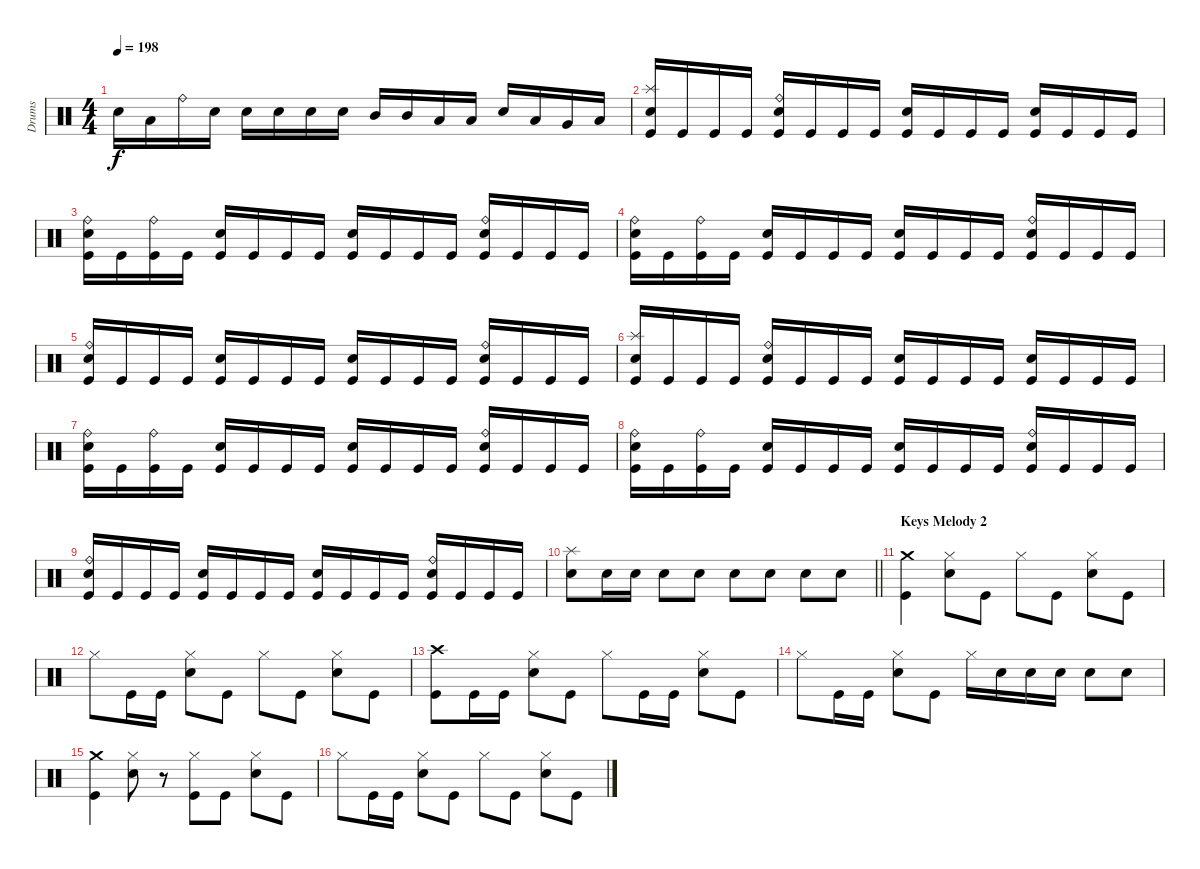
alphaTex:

\track ("Drums" "Drums") {instrument percussion}
\staff {score}
\articulation defaults
\ts (4 4)
\tempo 198
\clef neutral
\ks c "Electric Snare (hit)".16{dy f} "Low Tom (hit)".16 "Ride (bell)".16 "Electric Snare (hit)".16 "Electric Snare (hit)".16 "Electric Snare (hit)".16 "Electric Snare (hit)".16 "Electric Snare (hit)".16 "Mid Tom (hit)".16 "Mid Tom (hit)".16 "Low Tom (hit)".16 "Low Tom (hit)".16 "Electric Snare (hit)".16 "Low Tom (hit)".16 "Very Low Tom (hit)".16 "Low Floor Tom (hit)".16
|
("Splash (hit)" "Electric Snare (hit)" "Kick (hit)").16 "Kick (hit)".16 "Kick (hit)".16 "Kick (hit)".16 ("Ride (bell)" "Electric Snare (hit)" "Kick (hit)").16 "Kick (hit)".16 "Kick (hit)".16 "Kick (hit)".16 ("Electric Snare (hit)" "Kick (hit)").16 "Kick (hit)".16 "Kick (hit)".16 "Kick (hit)".16 ("Electric Snare (hit)" "Kick (hit)").16 "Kick (hit)".16 "Kick (hit)".16 "Kick (hit)".16 |
("Ride (bell)" "Electric Snare (hit)" "Kick (hit)").16 "Kick (hit)".16 ("Ride (bell)" "Kick (hit)").16 "Kick (hit)".16 ("Electric Snare (hit)" "Kick (hit)").16 "Kick (hit)".16 "Kick (hit)".16 "Kick (hit)".16 ("Electric Snare (hit)" "Kick (hit)").16 "Kick (hit)".16 "Kick (hit)".16 "Kick (hit)".16 ("Ride (bell)" "Electric Snare (hit)" "Kick (hit)").16 "Kick (hit)".16 "Kick (hit)".16 "Kick (hit)".16 |
("Ride (bell)" "Electric Snare (hit)" "Kick (hit)").16 "Kick (hit)".16 ("Ride (bell)" "Kick (hit)").16 "Kick (hit)".16 ("Electric Snare (hit)" "Kick (hit)").16 "Kick (hit)".16 "Kick (hit)".16 "Kick (hit)".16 ("Electric Snare (hit)" "Kick (hit)").16 "Kick (hit)".16 "Kick (hit)".16 "Kick (hit)".16 ("Ride (bell)" "Electric Snare (hit)" "Kick (hit)").16 "Kick (hit)".16 "Kick (hit)".16 "Kick (hit)".16 |
("Ride (bell)" "Electric Snare (hit)" "Kick (hit)").16 "Kick (hit)".16 "Kick (hit)".16 "Kick (hit)".16 ("Electric Snare (hit)" "Kick (hit)").16 "Kick (hit)".16 "Kick (hit)".16 "Kick (hit)".16 ("Electric Snare (hit)" "Kick (hit)").16 "Kick (hit)".16 "Kick (hit)".16 "Kick (hit)".16 ("Ride (bell)" "Electric Snare (hit)" "Kick (hit)").16 "Kick (hit)".16 "Kick (hit)".16 "Kick (hit)".16 |
("Splash (hit)" "Electric Snare (hit)" "Kick (hit)").16 "Kick (hit)".16 "Kick (hit)".16 "Kick (hit)".16 ("Ride (bell)" "Electric Snare (hit)" "Kick (hit)").16 "Kick (hit)".16 "Kick (hit)".16 "Kick (hit)".16 ("Electric Snare (hit)" "Kick (hit)").16 "Kick (hit)".16 "Kick (hit)".16 "Kick (hit)".16 ("Electric Snare (hit)" "Kick (hit)").16 "Kick (hit)".16 "Kick (hit)".16 "Kick (hit)".16 |
("Ride (bell)" "Electric Snare (hit)" "Kick (hit)").16 "Kick (hit)".16 ("Ride (bell)" "Kick (hit)").16 "Kick (hit)".16 ("Electric Snare (hit)" "Kick (hit)").16 "Kick (hit)".16 "Kick (hit)".16 "Kick (hit)".16 ("Electric Snare (hit)" "Kick (hit)").16 "Kick (hit)".16 "Kick (hit)".16 "Kick (hit)".16 ("Ride (bell)" "Electric Snare (hit)" "Kick (hit)").16 "Kick (hit)".16 "Kick (hit)".16 "Kick (hit)".16 |
("Ride (bell)" "Electric Snare (hit)" "Kick (hit)").16 "Kick (hit)".16 ("Ride (bell)" "Kick (hit)").16 "Kick (hit)".16 ("Electric Snare (hit)" "Kick (hit)").16 "Kick (hit)".16 "Kick (hit)".16 "Kick (hit)".16 ("Electric Snare (hit)" "Kick (hit)").16 "Kick (hit)".16 "Kick (hit)".16 "Kick (hit)".16 ("Ride (bell)" "Electric Snare (hit)" "Kick (hit)").16 "Kick (hit)".16 "Kick (hit)".16 "Kick (hit)".16 |
("Ride (bell)" "Electric Snare (hit)" "Kick (hit)").16 "Kick (hit)".16 "Kick (hit)".16 "Kick (hit)".16 ("Electric Snare (hit)" "Kick (hit)").16 "Kick (hit)".16 "Kick (hit)".16 "Kick (hit)".16 ("Electric Snare (hit)" "Kick (hit)").16 "Kick (hit)".16 "Kick (hit)".16 "Kick (hit)".16 ("Ride (bell)" "Electric Snare (hit)" "Kick (hit)").16 "Kick (hit)".16 "Kick (hit)".16 "Kick (hit)".16 |
\barLineRight lightlight
("Splash (hit)" "Electric Snare (hit)").8 "Electric Snare (hit)".16 "Electric Snare (hit)".16 "Electric Snare (hit)".8 "Electric Snare (hit)".8 "Electric Snare (hit)".8 "Electric Snare (hit)".8 "Electric Snare (hit)".8 "Electric Snare (hit)".8 |
\section ("" "Keys Melody 2")
("Crash medium (hit)" "Kick (hit)").4 ("Hi-Hat (closed)" "Electric Snare (hit)").8 "Kick (hit)".8 "Hi-Hat (closed)".8 "Kick (hit)".8 ("Hi-Hat (closed)" "Electric Snare (hit)").8 "Kick (hit)".8 |
"Hi-Hat (closed)".8 "Kick (hit)".16 "Kick (hit)".16 ("Hi-Hat (closed)" "Electric Snare (hit)").8 "Kick (hit)".8 "Hi-Hat (closed)".8 "Kick (hit)".8 ("Hi-Hat (closed)" "Electric Snare (hit)").8 "Kick (hit)".8 |
("Crash high (hit)" "Kick (hit)").8 "Kick (hit)".16 "Kick (hit)".16 ("Hi-Hat (closed)" "Electric Snare (hit)").8 "Kick (hit)".8 "Hi-Hat (closed)".8 "Kick (hit)".16 "Kick (hit)".16 ("Hi-Hat (closed)" "Electric Snare (hit)").8 "Kick (hit)".8 |
"Hi-Hat (closed)".8 "Kick (hit)".16 "Kick (hit)".16 ("Hi-Hat (closed)" "Electric Snare (hit)").8 "Kick (hit)".8 "Hi-Hat (closed)".16 "Electric Snare (hit)".16 "Electric Snare (hit)".16 "Electric Snare (hit)".16 "Electric Snare (hit)".8 "Electric Snare (hit)".8 |
("Crash medium (hit)" "Kick (hit)").4 ("Hi-Hat (closed)" "Electric Snare (hit)").8 r.8 ("Hi-Hat (closed)" "Kick (hit)").8 "Kick (hit)".8 ("Hi-Hat (closed)" "Electric Snare (hit)").8 "Kick (hit)".8 |
"Hi-Hat (closed)".8 "Kick (hit)".16 "Kick (hit)".16 ("Hi-Hat (closed)" "Electric Snare (hit)").8 "Kick (hit)".8 "Hi-Hat (closed)".8 "Kick (hit)".8 ("Hi-Hat (closed)" "Electric Snare (hit)").8 "Kick (hit)".8
